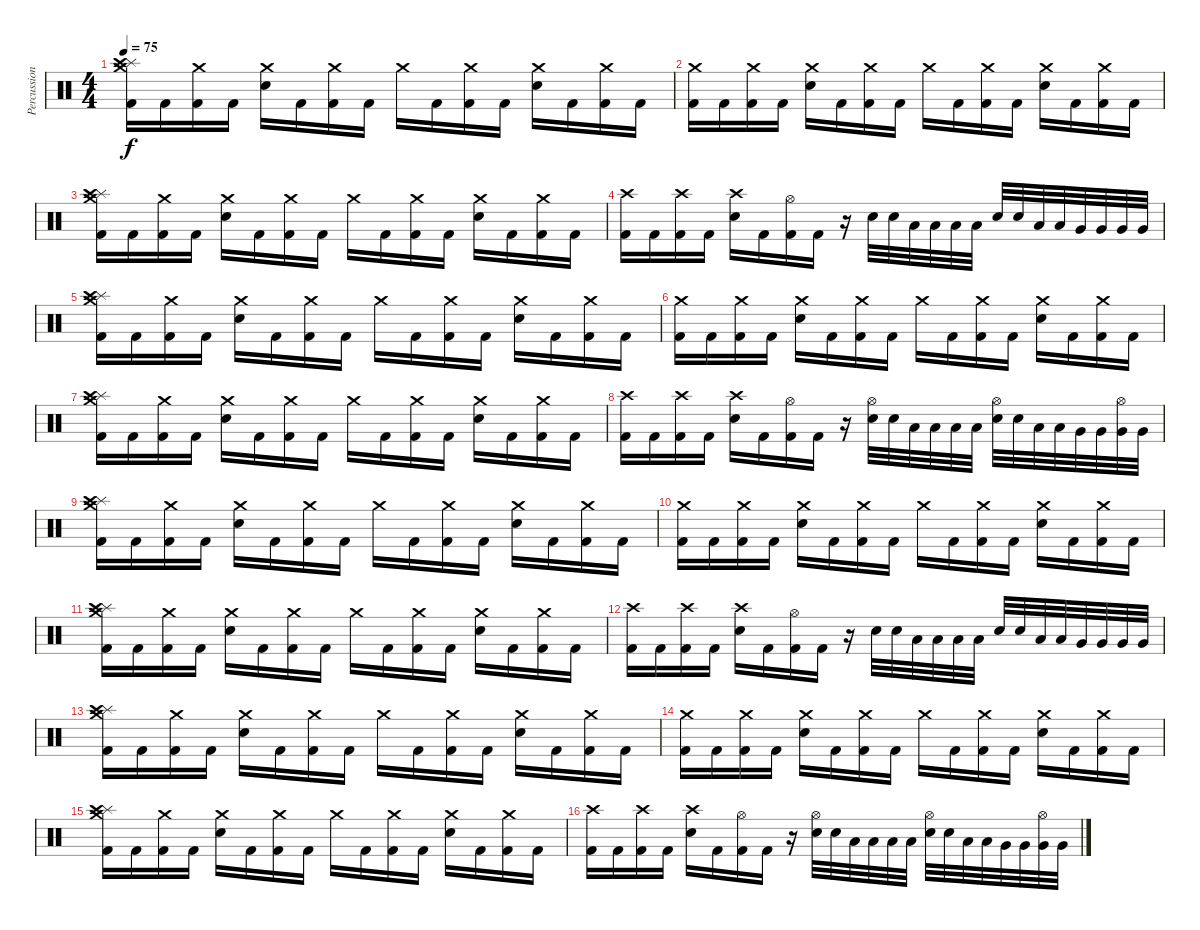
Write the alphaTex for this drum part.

\track ("Percussion" "Percussion") {instrument percussion}
\staff {score}
\articulation defaults
\ts (4 4)
\tempo 75
\clef neutral
\ks c
("Splash (hit)" "Crash high (hit)" "Crash medium (hit)" "Kick (hit) 2").16{dy f} "Kick (hit) 2".16 ("Crash medium (hit)" "Kick (hit) 2").16 "Kick (hit) 2".16 ("Crash medium (hit)" "Snare (hit) 2").16 "Kick (hit) 2".16 ("Crash medium (hit)" "Kick (hit) 2").16 "Kick (hit) 2".16 "Crash medium (hit)".16 "Kick (hit) 2".16 ("Crash medium (hit)" "Kick (hit) 2").16 "Kick (hit) 2".16 ("Crash medium (hit)" "Snare (hit) 2").16 "Kick (hit) 2".16 ("Crash medium (hit)" "Kick (hit) 2").16 "Kick (hit) 2".16 |
("Crash medium (hit)" "Kick (hit) 2").16 "Kick (hit) 2".16 ("Crash medium (hit)" "Kick (hit) 2").16 "Kick (hit) 2".16 ("Crash medium (hit)" "Snare (hit) 2").16 "Kick (hit) 2".16 ("Crash medium (hit)" "Kick (hit) 2").16 "Kick (hit) 2".16 "Crash medium (hit)".16 "Kick (hit) 2".16 ("Crash medium (hit)" "Kick (hit) 2").16 "Kick (hit) 2".16 ("Crash medium (hit)" "Snare (hit) 2").16 "Kick (hit) 2".16 ("Crash medium (hit)" "Kick (hit) 2").16 "Kick (hit) 2".16 |
("Splash (hit)" "Crash high (hit)" "Crash medium (hit)" "Kick (hit) 2").16 "Kick (hit) 2".16 ("Crash medium (hit)" "Kick (hit) 2").16 "Kick (hit) 2".16 ("Crash medium (hit)" "Snare (hit) 2").16 "Kick (hit) 2".16 ("Crash medium (hit)" "Kick (hit) 2").16 "Kick (hit) 2".16 "Crash medium (hit)".16 "Kick (hit) 2".16 ("Crash medium (hit)" "Kick (hit) 2").16 "Kick (hit) 2".16 ("Crash medium (hit)" "Snare (hit) 2").16 "Kick (hit) 2".16 ("Crash medium (hit)" "Kick (hit) 2").16 "Kick (hit) 2".16 |
("Crash high (hit)" "Kick (hit) 2").16 "Kick (hit) 2".16 ("Crash high (hit)" "Kick (hit) 2").16 "Kick (hit) 2".16 ("Crash high (hit)" "Electric Snare (hit)").16 "Kick (hit) 2".16 ("Hi-Hat (open)" "Kick (hit) 2").16 "Kick (hit) 2".16 r.16 "Electric Snare (hit)".32 "Electric Snare (hit)".32 "Low Tom (hit)".32 "Low Tom (hit)".32 "Low Tom (hit)".32 "Low Tom (hit)".32 "Electric Snare (hit)".32 "Electric Snare (hit)".32 "Low Tom (hit)".32 "Low Tom (hit)".32 "Very Low Tom (hit)".32 "Very Low Tom (hit)".32 "Very Low Tom (hit)".32 "Very Low Tom (hit)".32 |
("Splash (hit)" "Crash high (hit)" "Crash medium (hit)" "Kick (hit) 2").16 "Kick (hit) 2".16 ("Crash medium (hit)" "Kick (hit) 2").16 "Kick (hit) 2".16 ("Crash medium (hit)" "Snare (hit) 2").16 "Kick (hit) 2".16 ("Crash medium (hit)" "Kick (hit) 2").16 "Kick (hit) 2".16 "Crash medium (hit)".16 "Kick (hit) 2".16 ("Crash medium (hit)" "Kick (hit) 2").16 "Kick (hit) 2".16 ("Crash medium (hit)" "Snare (hit) 2").16 "Kick (hit) 2".16 ("Crash medium (hit)" "Kick (hit) 2").16 "Kick (hit) 2".16 |
("Crash medium (hit)" "Kick (hit) 2").16 "Kick (hit) 2".16 ("Crash medium (hit)" "Kick (hit) 2").16 "Kick (hit) 2".16 ("Crash medium (hit)" "Snare (hit) 2").16 "Kick (hit) 2".16 ("Crash medium (hit)" "Kick (hit) 2").16 "Kick (hit) 2".16 "Crash medium (hit)".16 "Kick (hit) 2".16 ("Crash medium (hit)" "Kick (hit) 2").16 "Kick (hit) 2".16 ("Crash medium (hit)" "Snare (hit) 2").16 "Kick (hit) 2".16 ("Crash medium (hit)" "Kick (hit) 2").16 "Kick (hit) 2".16 |
("Splash (hit)" "Crash high (hit)" "Crash medium (hit)" "Kick (hit) 2").16 "Kick (hit) 2".16 ("Crash medium (hit)" "Kick (hit) 2").16 "Kick (hit) 2".16 ("Crash medium (hit)" "Snare (hit) 2").16 "Kick (hit) 2".16 ("Crash medium (hit)" "Kick (hit) 2").16 "Kick (hit) 2".16 "Crash medium (hit)".16 "Kick (hit) 2".16 ("Crash medium (hit)" "Kick (hit) 2").16 "Kick (hit) 2".16 ("Crash medium (hit)" "Snare (hit) 2").16 "Kick (hit) 2".16 ("Crash medium (hit)" "Kick (hit) 2").16 "Kick (hit) 2".16 |
("Crash high (hit)" "Kick (hit) 2").16 "Kick (hit) 2".16 ("Crash high (hit)" "Kick (hit) 2").16 "Kick (hit) 2".16 ("Crash high (hit)" "Snare (hit) 2").16 "Kick (hit) 2".16 ("Hi-Hat (open)" "Kick (hit) 2").16 "Kick (hit) 2".16 r.16 ("Hi-Hat (open)" "Electric Snare (hit)").32 "Electric Snare (hit)".32 "Low Tom (hit)".32 "Low Tom (hit)".32 "Low Tom (hit)".32 "Low Tom (hit)".32 ("Hi-Hat (open)" "Electric Snare (hit)").32 "Electric Snare (hit)".32 "Low Tom (hit)".32 "Low Tom (hit)".32 "Very Low Tom (hit)".32 "Very Low Tom (hit)".32 ("Hi-Hat (open)" "Very Low Tom (hit)").32 "Very Low Tom (hit)".32 |
("Splash (hit)" "Crash high (hit)" "Crash medium (hit)" "Kick (hit) 2").16 "Kick (hit) 2".16 ("Crash medium (hit)" "Kick (hit) 2").16 "Kick (hit) 2".16 ("Crash medium (hit)" "Snare (hit) 2").16 "Kick (hit) 2".16 ("Crash medium (hit)" "Kick (hit) 2").16 "Kick (hit) 2".16 "Crash medium (hit)".16 "Kick (hit) 2".16 ("Crash medium (hit)" "Kick (hit) 2").16 "Kick (hit) 2".16 ("Crash medium (hit)" "Snare (hit) 2").16 "Kick (hit) 2".16 ("Crash medium (hit)" "Kick (hit) 2").16 "Kick (hit) 2".16 |
("Crash medium (hit)" "Kick (hit) 2").16 "Kick (hit) 2".16 ("Crash medium (hit)" "Kick (hit) 2").16 "Kick (hit) 2".16 ("Crash medium (hit)" "Snare (hit) 2").16 "Kick (hit) 2".16 ("Crash medium (hit)" "Kick (hit) 2").16 "Kick (hit) 2".16 "Crash medium (hit)".16 "Kick (hit) 2".16 ("Crash medium (hit)" "Kick (hit) 2").16 "Kick (hit) 2".16 ("Crash medium (hit)" "Snare (hit) 2").16 "Kick (hit) 2".16 ("Crash medium (hit)" "Kick (hit) 2").16 "Kick (hit) 2".16 |
("Splash (hit)" "Crash high (hit)" "Crash medium (hit)" "Kick (hit) 2").16 "Kick (hit) 2".16 ("Crash medium (hit)" "Kick (hit) 2").16 "Kick (hit) 2".16 ("Crash medium (hit)" "Snare (hit) 2").16 "Kick (hit) 2".16 ("Crash medium (hit)" "Kick (hit) 2").16 "Kick (hit) 2".16 "Crash medium (hit)".16 "Kick (hit) 2".16 ("Crash medium (hit)" "Kick (hit) 2").16 "Kick (hit) 2".16 ("Crash medium (hit)" "Snare (hit) 2").16 "Kick (hit) 2".16 ("Crash medium (hit)" "Kick (hit) 2").16 "Kick (hit) 2".16 |
("Crash high (hit)" "Kick (hit) 2").16 "Kick (hit) 2".16 ("Crash high (hit)" "Kick (hit) 2").16 "Kick (hit) 2".16 ("Crash high (hit)" "Electric Snare (hit)").16 "Kick (hit) 2".16 ("Hi-Hat (open)" "Kick (hit) 2").16 "Kick (hit) 2".16 r.16 "Electric Snare (hit)".32 "Electric Snare (hit)".32 "Low Tom (hit)".32 "Low Tom (hit)".32 "Low Tom (hit)".32 "Low Tom (hit)".32 "Electric Snare (hit)".32 "Electric Snare (hit)".32 "Low Tom (hit)".32 "Low Tom (hit)".32 "Very Low Tom (hit)".32 "Very Low Tom (hit)".32 "Very Low Tom (hit)".32 "Very Low Tom (hit)".32 |
("Splash (hit)" "Crash high (hit)" "Crash medium (hit)" "Kick (hit) 2").16{volume 16} "Kick (hit) 2".16 ("Crash medium (hit)" "Kick (hit) 2").16 "Kick (hit) 2".16 ("Crash medium (hit)" "Snare (hit) 2").16 "Kick (hit) 2".16 ("Crash medium (hit)" "Kick (hit) 2").16 "Kick (hit) 2".16 "Crash medium (hit)".16 "Kick (hit) 2".16 ("Crash medium (hit)" "Kick (hit) 2").16 "Kick (hit) 2".16 ("Crash medium (hit)" "Snare (hit) 2").16 "Kick (hit) 2".16 ("Crash medium (hit)" "Kick (hit) 2").16 "Kick (hit) 2".16 |
("Crash medium (hit)" "Kick (hit) 2").16 "Kick (hit) 2".16 ("Crash medium (hit)" "Kick (hit) 2").16 "Kick (hit) 2".16 ("Crash medium (hit)" "Snare (hit) 2").16 "Kick (hit) 2".16 ("Crash medium (hit)" "Kick (hit) 2").16 "Kick (hit) 2".16 "Crash medium (hit)".16 "Kick (hit) 2".16 ("Crash medium (hit)" "Kick (hit) 2").16 "Kick (hit) 2".16 ("Crash medium (hit)" "Snare (hit) 2").16 "Kick (hit) 2".16 ("Crash medium (hit)" "Kick (hit) 2").16 "Kick (hit) 2".16 |
("Splash (hit)" "Crash high (hit)" "Crash medium (hit)" "Kick (hit) 2").16 "Kick (hit) 2".16 ("Crash medium (hit)" "Kick (hit) 2").16 "Kick (hit) 2".16 ("Crash medium (hit)" "Snare (hit) 2").16 "Kick (hit) 2".16 ("Crash medium (hit)" "Kick (hit) 2").16 "Kick (hit) 2".16 "Crash medium (hit)".16 "Kick (hit) 2".16 ("Crash medium (hit)" "Kick (hit) 2").16 "Kick (hit) 2".16 ("Crash medium (hit)" "Snare (hit) 2").16 "Kick (hit) 2".16 ("Crash medium (hit)" "Kick (hit) 2").16 "Kick (hit) 2".16 |
("Crash high (hit)" "Kick (hit) 2").16 "Kick (hit) 2".16 ("Crash high (hit)" "Kick (hit) 2").16 "Kick (hit) 2".16 ("Crash high (hit)" "Snare (hit) 2").16 "Kick (hit) 2".16 ("Hi-Hat (open)" "Kick (hit) 2").16 "Kick (hit) 2".16 r.16 ("Hi-Hat (open)" "Electric Snare (hit)").32 "Electric Snare (hit)".32 "Low Tom (hit)".32 "Low Tom (hit)".32 "Low Tom (hit)".32 "Low Tom (hit)".32 ("Hi-Hat (open)" "Electric Snare (hit)").32 "Electric Snare (hit)".32 "Low Tom (hit)".32 "Low Tom (hit)".32 "Very Low Tom (hit)".32 "Very Low Tom (hit)".32 ("Hi-Hat (open)" "Very Low Tom (hit)").32 "Very Low Tom (hit)".32
